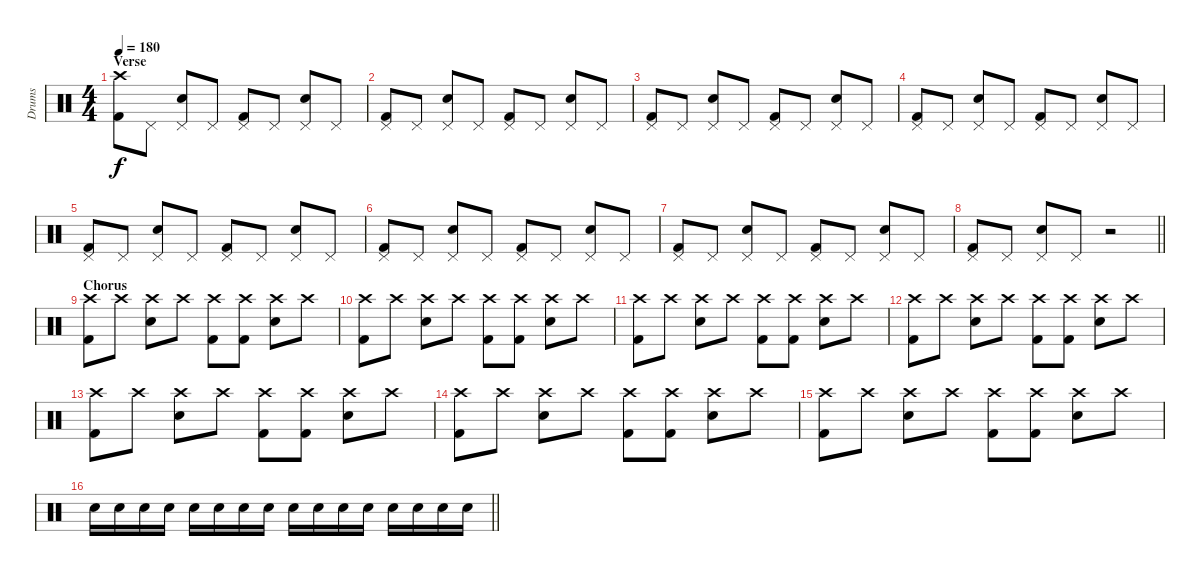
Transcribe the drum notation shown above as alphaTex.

\track ("Drums" "Drums") {instrument percussion}
\staff {score}
\articulation defaults
\ts (4 4)
\section ("" "Verse")
\tempo 180
\clef neutral
\ks c
("Crash high (hit)" "Kick (hit) 2").8{dy f} "Pedal Hi-Hat (hit)".8 ("Pedal Hi-Hat (hit)" "Snare (hit) 2").8 "Pedal Hi-Hat (hit)".8 ("Pedal Hi-Hat (hit)" "Kick (hit) 2").8 "Pedal Hi-Hat (hit)".8 ("Pedal Hi-Hat (hit)" "Snare (hit) 2").8 "Pedal Hi-Hat (hit)".8 |
("Pedal Hi-Hat (hit)" "Kick (hit) 2").8 "Pedal Hi-Hat (hit)".8 ("Pedal Hi-Hat (hit)" "Snare (hit) 2").8 "Pedal Hi-Hat (hit)".8 ("Pedal Hi-Hat (hit)" "Kick (hit) 2").8 "Pedal Hi-Hat (hit)".8 ("Pedal Hi-Hat (hit)" "Snare (hit) 2").8 "Pedal Hi-Hat (hit)".8 |
("Pedal Hi-Hat (hit)" "Kick (hit) 2").8 "Pedal Hi-Hat (hit)".8 ("Pedal Hi-Hat (hit)" "Snare (hit) 2").8 "Pedal Hi-Hat (hit)".8 ("Pedal Hi-Hat (hit)" "Kick (hit) 2").8 "Pedal Hi-Hat (hit)".8 ("Pedal Hi-Hat (hit)" "Snare (hit) 2").8 "Pedal Hi-Hat (hit)".8 |
("Pedal Hi-Hat (hit)" "Kick (hit) 2").8 "Pedal Hi-Hat (hit)".8 ("Pedal Hi-Hat (hit)" "Snare (hit) 2").8 "Pedal Hi-Hat (hit)".8 ("Pedal Hi-Hat (hit)" "Kick (hit) 2").8 "Pedal Hi-Hat (hit)".8 ("Pedal Hi-Hat (hit)" "Snare (hit) 2").8 "Pedal Hi-Hat (hit)".8 |
("Pedal Hi-Hat (hit)" "Kick (hit) 2").8 "Pedal Hi-Hat (hit)".8 ("Pedal Hi-Hat (hit)" "Snare (hit) 2").8 "Pedal Hi-Hat (hit)".8 ("Pedal Hi-Hat (hit)" "Kick (hit) 2").8 "Pedal Hi-Hat (hit)".8 ("Pedal Hi-Hat (hit)" "Snare (hit) 2").8 "Pedal Hi-Hat (hit)".8 |
("Pedal Hi-Hat (hit)" "Kick (hit) 2").8 "Pedal Hi-Hat (hit)".8 ("Pedal Hi-Hat (hit)" "Snare (hit) 2").8 "Pedal Hi-Hat (hit)".8 ("Pedal Hi-Hat (hit)" "Kick (hit) 2").8 "Pedal Hi-Hat (hit)".8 ("Pedal Hi-Hat (hit)" "Snare (hit) 2").8 "Pedal Hi-Hat (hit)".8 |
("Pedal Hi-Hat (hit)" "Kick (hit) 2").8 "Pedal Hi-Hat (hit)".8 ("Pedal Hi-Hat (hit)" "Snare (hit) 2").8 "Pedal Hi-Hat (hit)".8 ("Pedal Hi-Hat (hit)" "Kick (hit) 2").8 "Pedal Hi-Hat (hit)".8 ("Pedal Hi-Hat (hit)" "Snare (hit) 2").8 "Pedal Hi-Hat (hit)".8 |
\barLineRight lightlight
("Pedal Hi-Hat (hit)" "Kick (hit) 2").8 "Pedal Hi-Hat (hit)".8 ("Pedal Hi-Hat (hit)" "Snare (hit) 2").8 "Pedal Hi-Hat (hit)".8 r.2 |
\section ("" "Chorus")
("Crash high (hit)" "Kick (hit) 2").8 "Crash high (hit)".8 ("Crash high (hit)" "Snare (hit) 2").8 "Crash high (hit)".8 ("Crash high (hit)" "Kick (hit) 2").8 ("Crash high (hit)" "Kick (hit) 2").8 ("Crash high (hit)" "Snare (hit) 2").8 "Crash high (hit)".8 |
("Crash high (hit)" "Kick (hit) 2").8 "Crash high (hit)".8 ("Crash high (hit)" "Snare (hit) 2").8 "Crash high (hit)".8 ("Crash high (hit)" "Kick (hit) 2").8 ("Crash high (hit)" "Kick (hit) 2").8 ("Crash high (hit)" "Snare (hit) 2").8 "Crash high (hit)".8 |
("Crash high (hit)" "Kick (hit) 2").8 "Crash high (hit)".8 ("Crash high (hit)" "Snare (hit) 2").8 "Crash high (hit)".8 ("Crash high (hit)" "Kick (hit) 2").8 ("Crash high (hit)" "Kick (hit) 2").8 ("Crash high (hit)" "Snare (hit) 2").8 "Crash high (hit)".8 |
("Crash high (hit)" "Kick (hit) 2").8 "Crash high (hit)".8 ("Crash high (hit)" "Snare (hit) 2").8 "Crash high (hit)".8 ("Crash high (hit)" "Kick (hit) 2").8 ("Crash high (hit)" "Kick (hit) 2").8 ("Crash high (hit)" "Snare (hit) 2").8 "Crash high (hit)".8 |
("Crash high (hit)" "Kick (hit) 2").8 "Crash high (hit)".8 ("Crash high (hit)" "Snare (hit) 2").8 "Crash high (hit)".8 ("Crash high (hit)" "Kick (hit) 2").8 ("Crash high (hit)" "Kick (hit) 2").8 ("Crash high (hit)" "Snare (hit) 2").8 "Crash high (hit)".8 |
("Crash high (hit)" "Kick (hit) 2").8 "Crash high (hit)".8 ("Crash high (hit)" "Snare (hit) 2").8 "Crash high (hit)".8 ("Crash high (hit)" "Kick (hit) 2").8 ("Crash high (hit)" "Kick (hit) 2").8 ("Crash high (hit)" "Snare (hit) 2").8 "Crash high (hit)".8 |
("Crash high (hit)" "Kick (hit) 2").8 "Crash high (hit)".8 ("Crash high (hit)" "Snare (hit) 2").8 "Crash high (hit)".8 ("Crash high (hit)" "Kick (hit) 2").8 ("Crash high (hit)" "Kick (hit) 2").8 ("Crash high (hit)" "Snare (hit) 2").8 "Crash high (hit)".8 |
\barLineRight lightlight "Snare (hit) 2".16 "Snare (hit) 2".16 "Snare (hit) 2".16 "Snare (hit) 2".16 "Snare (hit) 2".16 "Snare (hit) 2".16 "Snare (hit) 2".16 "Snare (hit) 2".16 "Snare (hit) 2".16 "Snare (hit) 2".16 "Snare (hit) 2".16 "Snare (hit) 2".16 "Snare (hit) 2".16 "Snare (hit) 2".16 "Snare (hit) 2".16 "Snare (hit) 2".16
